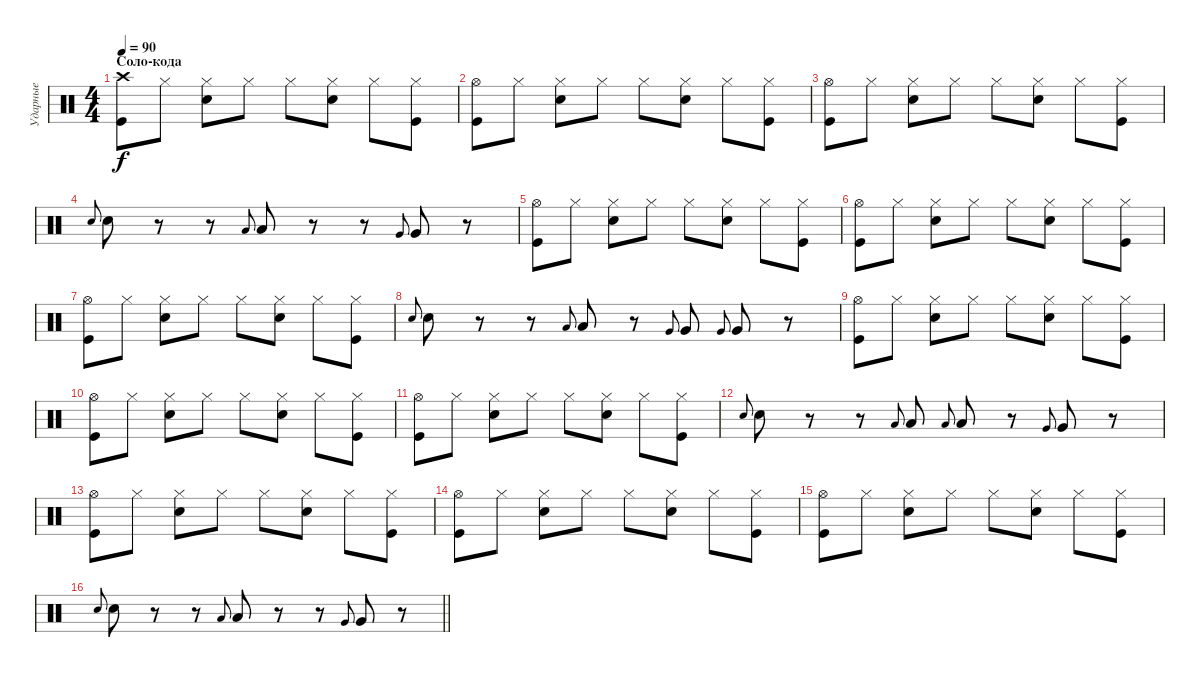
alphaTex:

\track ("Ударные" "Ударные") {instrument percussion}
\staff {score}
\articulation defaults
\ts (4 4)
\section ("" "Соло-кода")
\tempo 90
\clef neutral
\ks c
("Crash high (hit)" "Kick (hit)").8{dy f} "Hi-Hat (closed)".8 ("Hi-Hat (closed)" "Electric Snare (hit)").8 "Hi-Hat (closed)".8 "Hi-Hat (closed)".8 ("Hi-Hat (closed)" "Electric Snare (hit)").8 "Hi-Hat (closed)".8 ("Hi-Hat (closed)" "Kick (hit)").8 |
("Hi-Hat (open)" "Kick (hit)").8 "Hi-Hat (closed)".8 ("Hi-Hat (closed)" "Electric Snare (hit)").8 "Hi-Hat (closed)".8 "Hi-Hat (closed)".8 ("Hi-Hat (closed)" "Electric Snare (hit)").8 "Hi-Hat (closed)".8 ("Hi-Hat (closed)" "Kick (hit)").8 |
("Hi-Hat (open)" "Kick (hit)").8 "Hi-Hat (closed)".8 ("Hi-Hat (closed)" "Electric Snare (hit)").8 "Hi-Hat (closed)".8 "Hi-Hat (closed)".8 ("Hi-Hat (closed)" "Electric Snare (hit)").8 "Hi-Hat (closed)".8 ("Hi-Hat (closed)" "Kick (hit)").8 |
"Snare (hit) 2".8{gr onbeat} "Snare (hit) 2".8 r.8 r.8 "Low Tom (hit)".8{gr onbeat} "Low Tom (hit)".8 r.8 r.8 "Very Low Tom (hit)".8{gr onbeat} "Very Low Tom (hit)".8 r.8 |
("Hi-Hat (open)" "Kick (hit)").8 "Hi-Hat (closed)".8 ("Hi-Hat (closed)" "Electric Snare (hit)").8 "Hi-Hat (closed)".8 "Hi-Hat (closed)".8 ("Hi-Hat (closed)" "Electric Snare (hit)").8 "Hi-Hat (closed)".8 ("Hi-Hat (closed)" "Kick (hit)").8 |
("Hi-Hat (open)" "Kick (hit)").8 "Hi-Hat (closed)".8 ("Hi-Hat (closed)" "Electric Snare (hit)").8 "Hi-Hat (closed)".8 "Hi-Hat (closed)".8 ("Hi-Hat (closed)" "Electric Snare (hit)").8 "Hi-Hat (closed)".8 ("Hi-Hat (closed)" "Kick (hit)").8 |
("Hi-Hat (open)" "Kick (hit)").8 "Hi-Hat (closed)".8 ("Hi-Hat (closed)" "Electric Snare (hit)").8 "Hi-Hat (closed)".8 "Hi-Hat (closed)".8 ("Hi-Hat (closed)" "Electric Snare (hit)").8 "Hi-Hat (closed)".8 ("Hi-Hat (closed)" "Kick (hit)").8 |
"Snare (hit) 2".8{gr onbeat} "Snare (hit) 2".8 r.8 r.8 "Low Tom (hit)".8{gr onbeat} "Low Tom (hit)".8 r.8 "Very Low Tom (hit)".8{gr onbeat} "Very Low Tom (hit)".8 "Very Low Tom (hit)".8{gr onbeat} "Very Low Tom (hit)".8 r.8 |
("Hi-Hat (open)" "Kick (hit)").8 "Hi-Hat (closed)".8 ("Hi-Hat (closed)" "Electric Snare (hit)").8 "Hi-Hat (closed)".8 "Hi-Hat (closed)".8 ("Hi-Hat (closed)" "Electric Snare (hit)").8 "Hi-Hat (closed)".8 ("Hi-Hat (closed)" "Kick (hit)").8 |
("Hi-Hat (open)" "Kick (hit)").8 "Hi-Hat (closed)".8 ("Hi-Hat (closed)" "Electric Snare (hit)").8 "Hi-Hat (closed)".8 "Hi-Hat (closed)".8 ("Hi-Hat (closed)" "Electric Snare (hit)").8 "Hi-Hat (closed)".8 ("Hi-Hat (closed)" "Kick (hit)").8 |
("Hi-Hat (open)" "Kick (hit)").8 "Hi-Hat (closed)".8 ("Hi-Hat (closed)" "Electric Snare (hit)").8 "Hi-Hat (closed)".8 "Hi-Hat (closed)".8 ("Hi-Hat (closed)" "Electric Snare (hit)").8 "Hi-Hat (closed)".8 ("Hi-Hat (closed)" "Kick (hit)").8 |
"Snare (hit) 2".8{gr onbeat} "Snare (hit) 2".8 r.8 r.8 "Low Tom (hit)".8{gr onbeat} "Low Tom (hit)".8 "Low Tom (hit)".8{gr onbeat} "Low Tom (hit)".8 r.8 "Very Low Tom (hit)".8{gr onbeat} "Very Low Tom (hit)".8 r.8 |
("Hi-Hat (open)" "Kick (hit)").8 "Hi-Hat (closed)".8 ("Hi-Hat (closed)" "Electric Snare (hit)").8 "Hi-Hat (closed)".8 "Hi-Hat (closed)".8 ("Hi-Hat (closed)" "Electric Snare (hit)").8 "Hi-Hat (closed)".8 ("Hi-Hat (closed)" "Kick (hit)").8 |
("Hi-Hat (open)" "Kick (hit)").8 "Hi-Hat (closed)".8 ("Hi-Hat (closed)" "Electric Snare (hit)").8 "Hi-Hat (closed)".8 "Hi-Hat (closed)".8 ("Hi-Hat (closed)" "Electric Snare (hit)").8 "Hi-Hat (closed)".8 ("Hi-Hat (closed)" "Kick (hit)").8 |
("Hi-Hat (open)" "Kick (hit)").8 "Hi-Hat (closed)".8 ("Hi-Hat (closed)" "Electric Snare (hit)").8 "Hi-Hat (closed)".8 "Hi-Hat (closed)".8 ("Hi-Hat (closed)" "Electric Snare (hit)").8 "Hi-Hat (closed)".8 ("Hi-Hat (closed)" "Kick (hit)").8 |
\barLineRight lightlight "Snare (hit) 2".8{gr onbeat} "Snare (hit) 2".8
r.8 r.8 "Low Tom (hit)".8{gr onbeat} "Low Tom (hit)".8 r.8 r.8 "Very Low Tom (hit)".8{gr onbeat} "Very Low Tom (hit)".8 r.8
